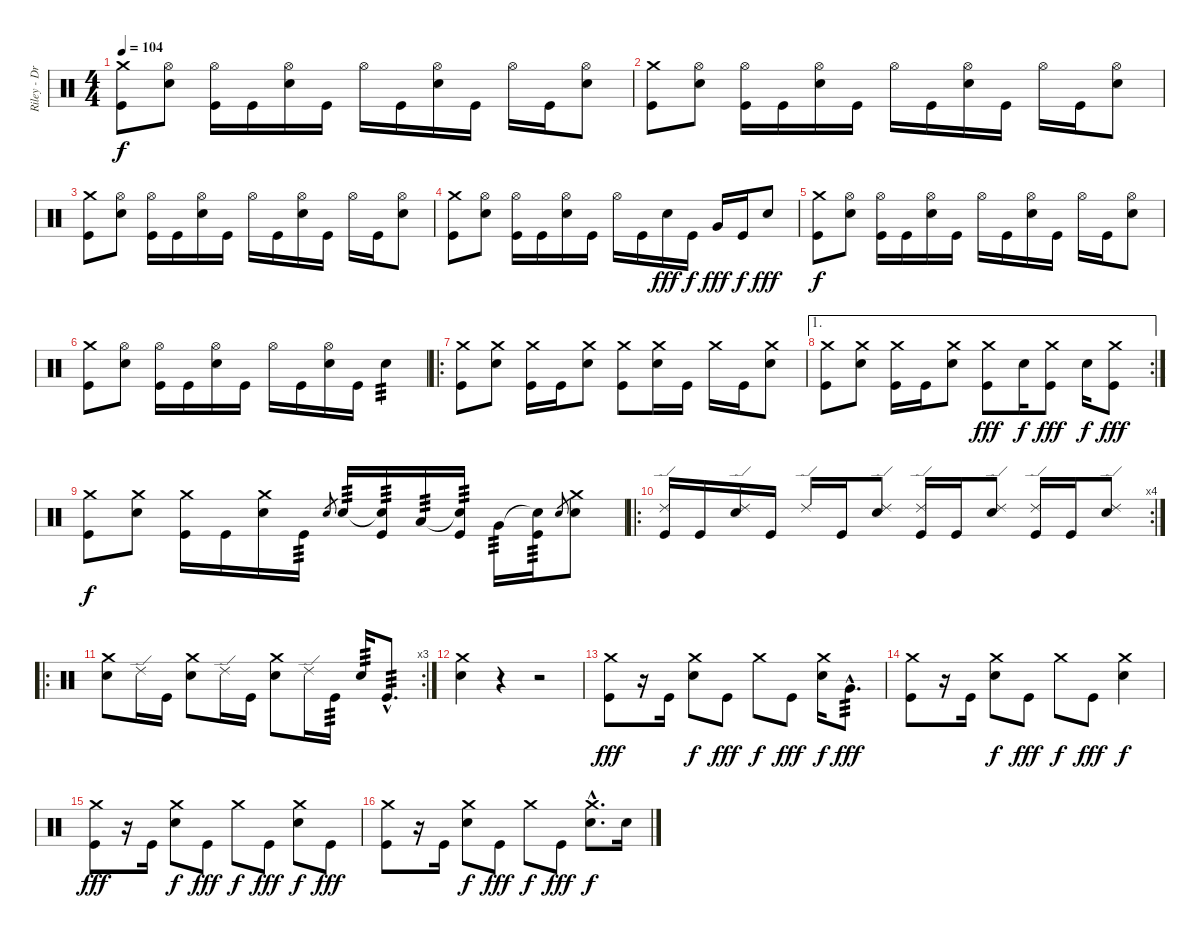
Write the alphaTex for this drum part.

\track ("Riley - Drums" "Riley - Dr") {instrument percussion}
\staff {score}
\articulation defaults
\ts (4 4)
\tempo 104
\clef neutral
\ks c
("Crash medium (hit)" "Kick (hit)").8{dy f} ("Hi-Hat (open)" "Snare (hit) 2").8 ("Hi-Hat (open)" "Kick (hit)").16 "Kick (hit)".16 ("Hi-Hat (open)" "Snare (hit) 2").16 "Kick (hit)".16 "Hi-Hat (open)".16 "Kick (hit)".16 ("Hi-Hat (open)" "Snare (hit) 2").16 "Kick (hit)".16 "Hi-Hat (open)".16 "Kick (hit)".16 ("Hi-Hat (open)" "Snare (hit) 2").8 |
("Crash medium (hit)" "Kick (hit)").8 ("Hi-Hat (open)" "Snare (hit) 2").8 ("Hi-Hat (open)" "Kick (hit)").16 "Kick (hit)".16 ("Hi-Hat (open)" "Snare (hit) 2").16 "Kick (hit)".16 "Hi-Hat (open)".16 "Kick (hit)".16 ("Hi-Hat (open)" "Snare (hit) 2").16 "Kick (hit)".16 "Hi-Hat (open)".16 "Kick (hit)".16 ("Hi-Hat (open)" "Snare (hit) 2").8 |
("Crash medium (hit)" "Kick (hit)").8 ("Hi-Hat (open)" "Snare (hit) 2").8 ("Hi-Hat (open)" "Kick (hit)").16 "Kick (hit)".16 ("Hi-Hat (open)" "Snare (hit) 2").16 "Kick (hit)".16 "Hi-Hat (open)".16 "Kick (hit)".16 ("Hi-Hat (open)" "Snare (hit) 2").16 "Kick (hit)".16 "Hi-Hat (open)".16 "Kick (hit)".16 ("Hi-Hat (open)" "Snare (hit) 2").8 |
("Crash medium (hit)" "Kick (hit)").8 ("Hi-Hat (open)" "Snare (hit) 2").8 ("Hi-Hat (open)" "Kick (hit)").16 "Kick (hit)".16 ("Hi-Hat (open)" "Snare (hit) 2").16 "Kick (hit)".16 "Hi-Hat (open)".16 "Kick (hit)".16 "Snare (hit) 2".16{dy fff} "Kick (hit)".16{dy f} "Very Low Tom (hit)".16{dy fff} "Kick (hit)".16{dy f} "Snare (hit) 2".8{dy fff} |
("Crash medium (hit)" "Kick (hit)").8{dy f} ("Hi-Hat (open)" "Snare (hit) 2").8 ("Hi-Hat (open)" "Kick (hit)").16 "Kick (hit)".16 ("Hi-Hat (open)" "Snare (hit) 2").16 "Kick (hit)".16 "Hi-Hat (open)".16 "Kick (hit)".16 ("Hi-Hat (open)" "Snare (hit) 2").16 "Kick (hit)".16 "Hi-Hat (open)".16 "Kick (hit)".16 ("Hi-Hat (open)" "Snare (hit) 2").8 |
("Crash medium (hit)" "Kick (hit)").8 ("Hi-Hat (open)" "Snare (hit) 2").8 ("Hi-Hat (open)" "Kick (hit)").16 "Kick (hit)".16 ("Hi-Hat (open)" "Snare (hit) 2").16 "Kick (hit)".16 "Hi-Hat (open)".16 "Kick (hit)".16 ("Hi-Hat (open)" "Snare (hit) 2").16 "Kick (hit)".16 "Snare (hit) 2".4{tp 3} |
\ro
("Crash medium (hit)" "Kick (hit)").8 ("Crash medium (hit)" "Snare (hit) 2").8 ("Crash medium (hit)" "Kick (hit)").16 "Kick (hit)".16 ("Crash medium (hit)" "Snare (hit) 2").8 ("Crash medium (hit)" "Kick (hit)").8 ("Crash medium (hit)" "Snare (hit) 2").16 "Kick (hit)".16 "Crash medium (hit)".16 "Kick (hit)".16 ("Crash medium (hit)" "Snare (hit) 2").8 |
\ae 1
\rc 2
("Crash medium (hit)" "Kick (hit)").8 ("Crash medium (hit)" "Snare (hit) 2").8 ("Crash medium (hit)" "Kick (hit)").16 "Kick (hit)".16 ("Crash medium (hit)" "Snare (hit) 2").8 ("Crash medium (hit)" "Kick (hit)").8{dy fff} "Snare (hit) 2".16{dy f} ("Crash medium (hit)" "Kick (hit)").8{dy fff} "Snare (hit) 2".16{dy f} ("Crash medium (hit)" "Kick (hit)").8{dy fff} |
("Crash medium (hit)" "Kick (hit)").8{dy f} ("Crash medium (hit)" "Snare (hit) 2").8 ("Crash medium (hit)" "Kick (hit)").16 "Kick (hit)".16 ("Crash medium (hit)" "Snare (hit) 2").16 "Kick (hit)".16{tp 3} "Snare (hit) 2".8{gr} "Snare (hit) 2".16{tp 3} ("Snare (hit)"{t} "Kick (hit)").16{tp 3} "Low Tom (hit)".16{tp 3} ("Snare (hit)"{t} "Kick (hit)").16{tp 3} "Very Low Tom (hit)".16{tp 3} ("Snare (hit)"{t} "Kick (hit)").16{tp 3} "Snare (hit) 2".8{gr} ("Crash medium (hit)" "Snare (hit) 2").8 |
\ro
\rc 4
("Ride (edge) 2" "Kick (hit)").16 "Kick (hit)".16 ("Ride (edge) 2" "Snare (hit) 2").16 "Kick (hit)".16 "Ride (edge) 2".16 "Kick (hit)".16 ("Ride (edge) 2" "Snare (hit) 2").8 ("Ride (edge) 2" "Kick (hit)").16 "Kick (hit)".16 ("Ride (edge) 2" "Snare (hit) 2").8 ("Ride (edge) 2" "Kick (hit)").16 "Kick (hit)".16 ("Ride (edge) 2" "Snare (hit) 2").8 |
\ro
\rc 3
("Crash medium (hit)" "Snare (hit) 2").8 "Ride (edge) 2".16 "Kick (hit)".16 ("Crash medium (hit)" "Snare (hit) 2").8 "Ride (edge) 2".16 "Kick (hit)".16 ("Crash medium (hit)" "Snare (hit) 2").8 "Ride (edge) 2".16 "Kick (hit)".16{tp 3} "Snare (hit) 2".16{tp 3} "Kick (hit)"{hac}.8{d tp 3} |
("Crash medium (hit)" "Snare (hit) 2").4 r.4 r.2 |
("Crash medium (hit)" "Kick (hit)").8{dy fff} r.16 "Kick (hit)".16 ("Crash medium (hit)" "Snare (hit) 2").8{dy f} "Kick (hit)".8{dy fff} "Crash medium (hit)".8{dy f} "Kick (hit)".8{dy fff} ("Crash medium (hit)" "Snare (hit) 2").16{dy f} "Very Low Tom (hit)"{hac}.8{d tp 3 dy fff} |
("Crash medium (hit)" "Kick (hit)").8 r.16 "Kick (hit)".16 ("Crash medium (hit)" "Snare (hit) 2").8{dy f} "Kick (hit)".8{dy fff} "Crash medium (hit)".8{dy f} "Kick (hit)".8{dy fff} ("Crash medium (hit)" "Snare (hit) 2").4{dy f} |
("Crash medium (hit)" "Kick (hit)").8{dy fff} r.16 "Kick (hit)".16 ("Crash medium (hit)" "Snare (hit) 2").8{dy f} "Kick (hit)".8{dy fff} "Crash medium (hit)".8{dy f} "Kick (hit)".8{dy fff} ("Crash medium (hit)" "Snare (hit) 2").8{dy f} "Kick (hit)".8{dy fff} |
("Crash medium (hit)" "Kick (hit)").8 r.16 "Kick (hit)".16 ("Crash medium (hit)" "Snare (hit) 2").8{dy f} "Kick (hit)".8{dy fff} "Crash medium (hit)".8{dy f} "Kick (hit)".8{dy fff} ("Crash medium (hit)"{hac} "Snare (hit) 2"{hac}).8{d dy f} "Snare (hit) 2".16
